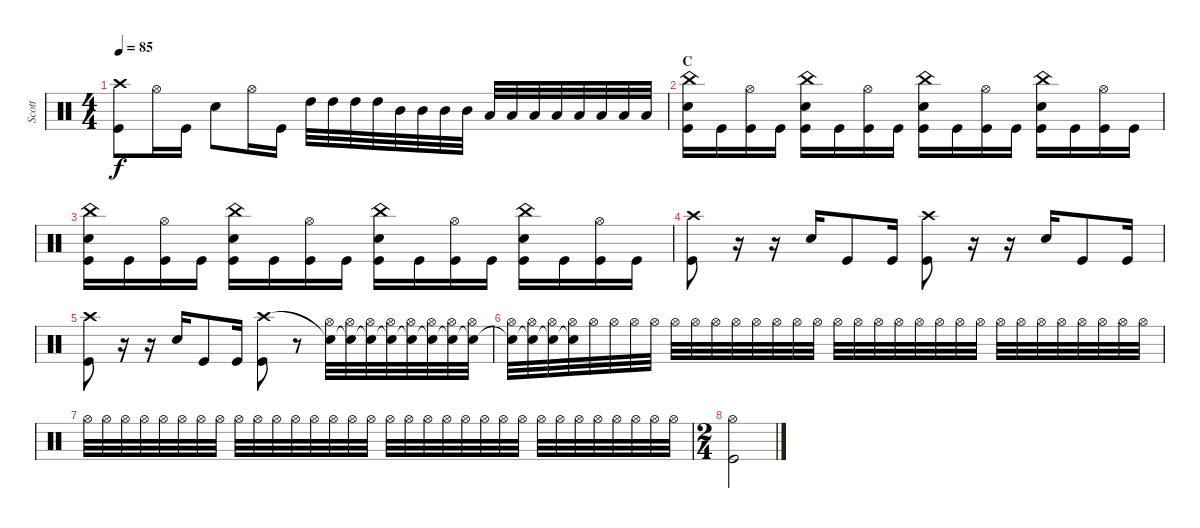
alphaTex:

\track ("Scott" "Scott") {instrument percussion}
\staff {score}
\articulation defaults
\ts (4 4)
\tempo 85
\clef neutral
\ks c
("Kick (hit)" "Crash high (hit)").8{dy f} "Hi-Hat (open)".16 "Kick (hit)".16 "Snare (hit) 2".8 "Hi-Hat (open)".16 "Kick (hit)".16 "High Tom (hit)".32 "High Tom (hit)".32 "High Tom (hit)".32 "High Tom (hit)".32 "Mid Tom (hit)".32 "Mid Tom (hit)".32 "Mid Tom (hit)".32 "Mid Tom (hit)".32 "Low Tom (hit)".32 "Low Tom (hit)".32 "Low Tom (hit)".32 "Low Tom (hit)".32 "Low Floor Tom (hit)".32 "Low Floor Tom (hit)".32 "Low Floor Tom (hit)".32 "Low Floor Tom (hit)".32 |
\section ("" "C")
("Snare (hit) 2" "Kick (hit)" "China (hit)").16 "Kick (hit)".16 ("Kick (hit)" "Hi-Hat (open)").16 "Kick (hit)".16 ("Snare (hit) 2" "Kick (hit)" "China (hit)").16 "Kick (hit)".16 ("Kick (hit)" "Hi-Hat (open)").16 "Kick (hit)".16 ("Snare (hit) 2" "Kick (hit)" "China (hit)").16 "Kick (hit)".16 ("Kick (hit)" "Hi-Hat (open)").16 "Kick (hit)".16 ("Snare (hit) 2" "Kick (hit)" "China (hit)").16 "Kick (hit)".16 ("Kick (hit)" "Hi-Hat (open)").16 "Kick (hit)".16 |
("Snare (hit) 2" "Kick (hit)" "China (hit)").16 "Kick (hit)".16 ("Kick (hit)" "Hi-Hat (open)").16 "Kick (hit)".16 ("Snare (hit) 2" "Kick (hit)" "China (hit)").16 "Kick (hit)".16 ("Kick (hit)" "Hi-Hat (open)").16 "Kick (hit)".16 ("Snare (hit) 2" "Kick (hit)" "China (hit)").16 "Kick (hit)".16 ("Kick (hit)" "Hi-Hat (open)").16 "Kick (hit)".16 ("Snare (hit) 2" "Kick (hit)" "China (hit)").16 "Kick (hit)".16 ("Kick (hit)" "Hi-Hat (open)").16 "Kick (hit)".16 |
("Kick (hit)" "Crash high (hit)").8 r.16 r.16 "Snare (hit) 2".16 "Kick (hit)".8 "Kick (hit)".16 ("Kick (hit)" "Crash high (hit)").8 r.16 r.16 "Snare (hit) 2".16 "Kick (hit)".8 "Kick (hit)".16 |
("Kick (hit)" "Crash high (hit)").8 r.16 r.16 "Snare (hit) 2".16 "Kick (hit)".8 "Kick (hit)".16 ("Kick (hit)" "Crash high (hit)").8 r.8 ("Hi-Hat (open)" "Snare (hit)"{t}).32{volume 6} ("Hi-Hat (open)" "Snare (hit)"{t}).32{volume 16} ("Hi-Hat (open)" "Snare (hit)"{t}).32 ("Hi-Hat (open)" "Snare (hit)"{t}).32 ("Hi-Hat (open)" "Snare (hit)"{t}).32 ("Hi-Hat (open)" "Snare (hit)"{t}).32 ("Hi-Hat (open)" "Snare (hit)"{t}).32 ("Hi-Hat (open)" "Snare (hit)"{t}).32 |
("Hi-Hat (open)" "Snare (hit)"{t}).32 ("Hi-Hat (open)" "Snare (hit)"{t}).32 ("Hi-Hat (open)" "Snare (hit)"{t}).32 ("Hi-Hat (open)" "Snare (hit)"{t}).32 "Hi-Hat (open)".32 "Hi-Hat (open)".32 "Hi-Hat (open)".32 "Hi-Hat (open)".32 "Hi-Hat (open)".32 "Hi-Hat (open)".32 "Hi-Hat (open)".32 "Hi-Hat (open)".32 "Hi-Hat (open)".32 "Hi-Hat (open)".32 "Hi-Hat (open)".32 "Hi-Hat (open)".32 "Hi-Hat (open)".32 "Hi-Hat (open)".32 "Hi-Hat (open)".32 "Hi-Hat (open)".32 "Hi-Hat (open)".32 "Hi-Hat (open)".32 "Hi-Hat (open)".32 "Hi-Hat (open)".32 "Hi-Hat (open)".32 "Hi-Hat (open)".32 "Hi-Hat (open)".32 "Hi-Hat (open)".32 "Hi-Hat (open)".32 "Hi-Hat (open)".32 "Hi-Hat (open)".32 "Hi-Hat (open)".32 |
"Hi-Hat (open)".32 "Hi-Hat (open)".32 "Hi-Hat (open)".32 "Hi-Hat (open)".32 "Hi-Hat (open)".32 "Hi-Hat (open)".32 "Hi-Hat (open)".32 "Hi-Hat (open)".32 "Hi-Hat (open)".32 "Hi-Hat (open)".32 "Hi-Hat (open)".32 "Hi-Hat (open)".32 "Hi-Hat (open)".32 "Hi-Hat (open)".32 "Hi-Hat (open)".32 "Hi-Hat (open)".32 "Hi-Hat (open)".32 "Hi-Hat (open)".32 "Hi-Hat (open)".32 "Hi-Hat (open)".32 "Hi-Hat (open)".32 "Hi-Hat (open)".32 "Hi-Hat (open)".32 "Hi-Hat (open)".32 "Hi-Hat (open)".32 "Hi-Hat (open)".32 "Hi-Hat (open)".32 "Hi-Hat (open)".32 "Hi-Hat (open)".32 "Hi-Hat (open)".32 "Hi-Hat (open)".32 "Hi-Hat (open)".32 |
\ts (2 4)
("Hi-Hat (open)" "Kick (hit)").2
